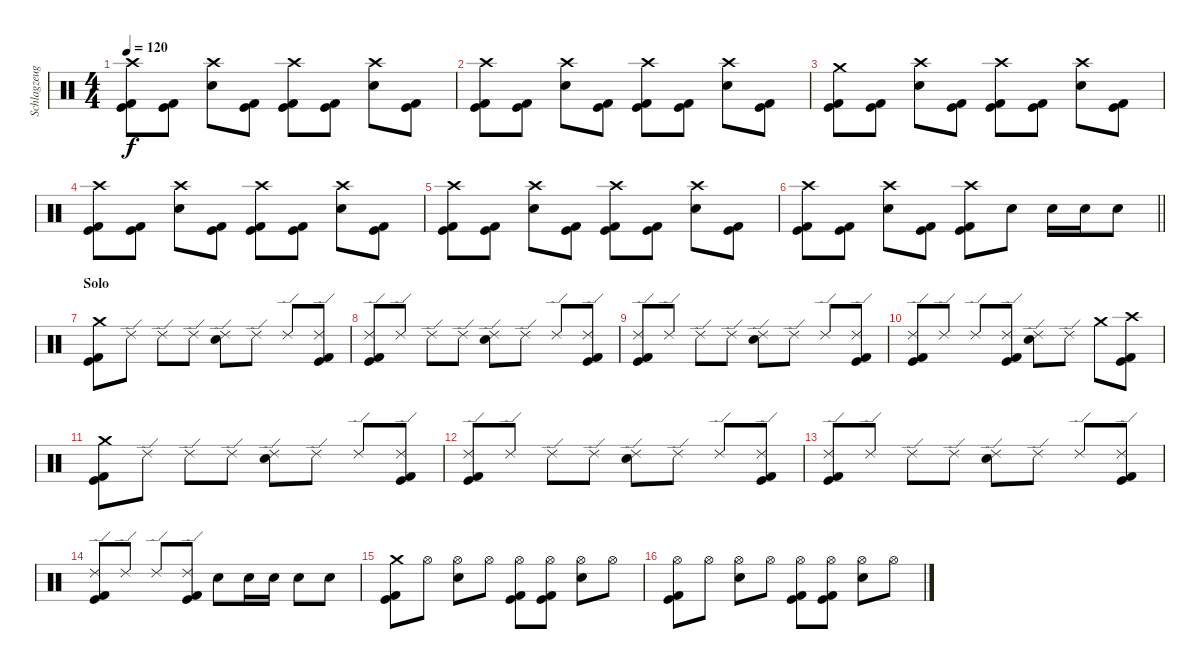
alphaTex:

\track ("Schlagzeug" "Schlagzeug") {instrument percussion}
\staff {score}
\articulation defaults
\ts (4 4)
\tempo 120
\clef neutral
\ks c
("Kick (hit) 2" "Kick (hit)" "Crash high (hit)").8{dy f} ("Kick (hit) 2" "Kick (hit)").8 ("Electric Snare (hit)" "Crash high (hit)").8 ("Kick (hit) 2" "Kick (hit)").8 ("Kick (hit) 2" "Kick (hit)" "Crash high (hit)").8 ("Kick (hit) 2" "Kick (hit)").8 ("Electric Snare (hit)" "Crash high (hit)").8 ("Kick (hit) 2" "Kick (hit)").8 |
("Kick (hit) 2" "Kick (hit)" "Crash high (hit)").8 ("Kick (hit) 2" "Kick (hit)").8 ("Electric Snare (hit)" "Crash high (hit)").8 ("Kick (hit) 2" "Kick (hit)").8 ("Kick (hit) 2" "Kick (hit)" "Crash high (hit)").8 ("Kick (hit) 2" "Kick (hit)").8 ("Electric Snare (hit)" "Crash high (hit)").8 ("Kick (hit) 2" "Kick (hit)").8 |
("Kick (hit) 2" "Kick (hit)" "Crash medium (hit)").8 ("Kick (hit) 2" "Kick (hit)").8 ("Electric Snare (hit)" "Crash high (hit)").8 ("Kick (hit) 2" "Kick (hit)").8 ("Kick (hit) 2" "Kick (hit)" "Crash high (hit)").8 ("Kick (hit) 2" "Kick (hit)").8 ("Electric Snare (hit)" "Crash high (hit)").8 ("Kick (hit) 2" "Kick (hit)").8 |
("Kick (hit) 2" "Kick (hit)" "Crash high (hit)").8 ("Kick (hit) 2" "Kick (hit)").8 ("Electric Snare (hit)" "Crash high (hit)").8 ("Kick (hit) 2" "Kick (hit)").8 ("Kick (hit) 2" "Kick (hit)" "Crash high (hit)").8 ("Kick (hit) 2" "Kick (hit)").8 ("Electric Snare (hit)" "Crash high (hit)").8 ("Kick (hit) 2" "Kick (hit)").8 |
("Kick (hit) 2" "Kick (hit)" "Crash high (hit)").8 ("Kick (hit) 2" "Kick (hit)").8 ("Electric Snare (hit)" "Crash high (hit)").8 ("Kick (hit) 2" "Kick (hit)").8 ("Kick (hit) 2" "Kick (hit)" "Crash high (hit)").8 ("Kick (hit) 2" "Kick (hit)").8 ("Electric Snare (hit)" "Crash high (hit)").8 ("Kick (hit) 2" "Kick (hit)").8 |
\barLineRight lightlight
("Kick (hit) 2" "Kick (hit)" "Crash high (hit)").8 ("Kick (hit) 2" "Kick (hit)").8 ("Electric Snare (hit)" "Crash high (hit)").8 ("Kick (hit) 2" "Kick (hit)").8 ("Kick (hit) 2" "Kick (hit)" "Crash high (hit)").8 "Electric Snare (hit)".8 "Electric Snare (hit)".16 "Electric Snare (hit)".16 "Electric Snare (hit)".8 |
\section ("" "Solo")
("Kick (hit) 2" "Kick (hit)" "Crash medium (hit)").8 "Ride (edge) 2".8 "Ride (edge) 2".8 "Ride (edge) 2".8 ("Electric Snare (hit)" "Ride (edge) 2").8 "Ride (edge) 2".8 "Ride (edge) 2".8 ("Kick (hit) 2" "Kick (hit)" "Ride (edge) 2").8 |
("Kick (hit) 2" "Kick (hit)" "Ride (edge) 2").8 "Ride (edge) 2".8 "Ride (edge) 2".8 "Ride (edge) 2".8 ("Electric Snare (hit)" "Ride (edge) 2").8 "Ride (edge) 2".8 "Ride (edge) 2".8 ("Kick (hit) 2" "Kick (hit)" "Ride (edge) 2").8 |
("Kick (hit) 2" "Kick (hit)" "Ride (edge) 2").8 "Ride (edge) 2".8 "Ride (edge) 2".8 "Ride (edge) 2".8 ("Electric Snare (hit)" "Ride (edge) 2").8 "Ride (edge) 2".8 "Ride (edge) 2".8 ("Kick (hit) 2" "Kick (hit)" "Ride (edge) 2").8 |
("Kick (hit) 2" "Kick (hit)" "Ride (edge) 2").8 "Ride (edge) 2".8 "Ride (edge) 2".8 ("Kick (hit) 2" "Kick (hit)" "Ride (edge) 2").8 ("Electric Snare (hit)" "Ride (edge) 2").8 "Ride (edge) 2".8 "Crash medium (hit)".8 ("Kick (hit) 2" "Kick (hit)" "Crash high (hit)").8 |
("Kick (hit) 2" "Kick (hit)" "Crash medium (hit)").8 "Ride (edge) 2".8 "Ride (edge) 2".8 "Ride (edge) 2".8 ("Electric Snare (hit)" "Ride (edge) 2").8 "Ride (edge) 2".8 "Ride (edge) 2".8 ("Kick (hit) 2" "Kick (hit)" "Ride (edge) 2").8 |
("Kick (hit) 2" "Kick (hit)" "Ride (edge) 2").8 "Ride (edge) 2".8 "Ride (edge) 2".8 "Ride (edge) 2".8 ("Electric Snare (hit)" "Ride (edge) 2").8 "Ride (edge) 2".8 "Ride (edge) 2".8 ("Kick (hit) 2" "Kick (hit)" "Ride (edge) 2").8 |
("Kick (hit) 2" "Kick (hit)" "Ride (edge) 2").8 "Ride (edge) 2".8 "Ride (edge) 2".8 "Ride (edge) 2".8 ("Electric Snare (hit)" "Ride (edge) 2").8 "Ride (edge) 2".8 "Ride (edge) 2".8 ("Kick (hit) 2" "Kick (hit)" "Ride (edge) 2").8 |
("Kick (hit) 2" "Kick (hit)" "Ride (edge) 2").8 "Ride (edge) 2".8 "Ride (edge) 2".8 ("Kick (hit) 2" "Kick (hit)" "Ride (edge) 2").8 "Electric Snare (hit)".8 "Electric Snare (hit)".16 "Electric Snare (hit)".16 "Electric Snare (hit)".8 "Electric Snare (hit)".8 |
("Kick (hit) 2" "Kick (hit)" "Crash medium (hit)").8 "Hi-Hat (open)".8 ("Hi-Hat (open)" "Electric Snare (hit)").8 "Hi-Hat (open)".8 ("Hi-Hat (open)" "Kick (hit) 2" "Kick (hit)").8 ("Hi-Hat (open)" "Kick (hit) 2" "Kick (hit)").8 ("Hi-Hat (open)" "Electric Snare (hit)").8 "Hi-Hat (open)".8 |
("Hi-Hat (open)" "Kick (hit) 2" "Kick (hit)").8 "Hi-Hat (open)".8 ("Hi-Hat (open)" "Electric Snare (hit)").8 "Hi-Hat (open)".8 ("Hi-Hat (open)" "Kick (hit) 2" "Kick (hit)").8 ("Hi-Hat (open)" "Kick (hit) 2" "Kick (hit)").8 ("Hi-Hat (open)" "Electric Snare (hit)").8 "Hi-Hat (open)".8
